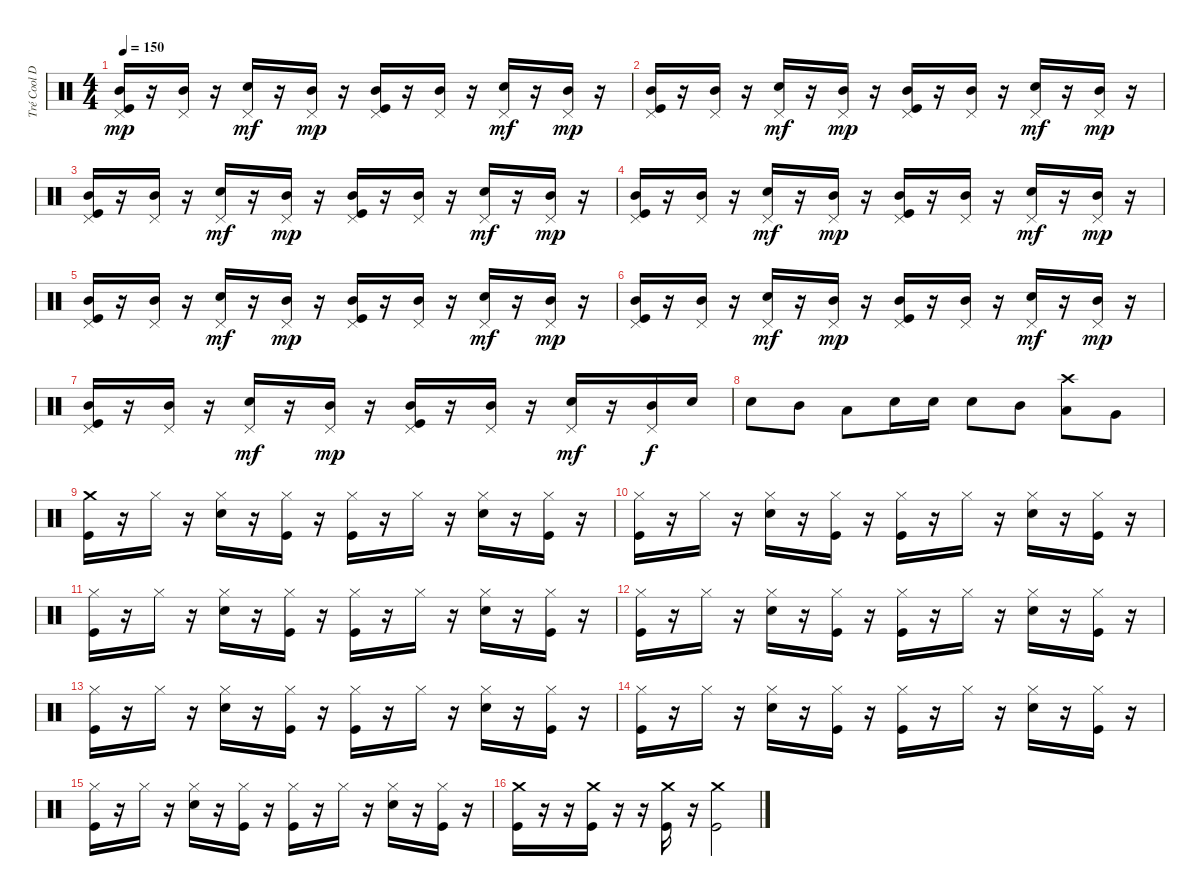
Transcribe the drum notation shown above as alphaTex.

\track ("Tré Cool Drums" "Tré Cool D") {instrument percussion}
\staff {score}
\articulation defaults
\ts (4 4)
\tempo 150
\clef neutral
\ks c
("Pedal Hi-Hat (hit)" "Mid Tom (hit)" "Kick (hit)").16{dy mp} r.16 ("Pedal Hi-Hat (hit)" "Mid Tom (hit)").16 r.16 ("Pedal Hi-Hat (hit)" "Electric Snare (hit)").16{dy mf} r.16 ("Pedal Hi-Hat (hit)" "Mid Tom (hit)").16{dy mp} r.16 ("Pedal Hi-Hat (hit)" "Mid Tom (hit)" "Kick (hit)").16 r.16 ("Pedal Hi-Hat (hit)" "Mid Tom (hit)").16 r.16 ("Pedal Hi-Hat (hit)" "Electric Snare (hit)").16{dy mf} r.16 ("Pedal Hi-Hat (hit)" "Mid Tom (hit)").16{dy mp} r.16 |
("Pedal Hi-Hat (hit)" "Mid Tom (hit)" "Kick (hit)").16 r.16 ("Pedal Hi-Hat (hit)" "Mid Tom (hit)").16 r.16 ("Pedal Hi-Hat (hit)" "Electric Snare (hit)").16{dy mf} r.16 ("Pedal Hi-Hat (hit)" "Mid Tom (hit)").16{dy mp} r.16 ("Pedal Hi-Hat (hit)" "Mid Tom (hit)" "Kick (hit)").16 r.16 ("Pedal Hi-Hat (hit)" "Mid Tom (hit)").16 r.16 ("Pedal Hi-Hat (hit)" "Electric Snare (hit)").16{dy mf} r.16 ("Pedal Hi-Hat (hit)" "Mid Tom (hit)").16{dy mp} r.16 |
("Pedal Hi-Hat (hit)" "Mid Tom (hit)" "Kick (hit)").16 r.16 ("Pedal Hi-Hat (hit)" "Mid Tom (hit)").16 r.16 ("Pedal Hi-Hat (hit)" "Electric Snare (hit)").16{dy mf} r.16 ("Pedal Hi-Hat (hit)" "Mid Tom (hit)").16{dy mp} r.16 ("Pedal Hi-Hat (hit)" "Mid Tom (hit)" "Kick (hit)").16 r.16 ("Pedal Hi-Hat (hit)" "Mid Tom (hit)").16 r.16 ("Pedal Hi-Hat (hit)" "Electric Snare (hit)").16{dy mf} r.16 ("Pedal Hi-Hat (hit)" "Mid Tom (hit)").16{dy mp} r.16 |
("Pedal Hi-Hat (hit)" "Mid Tom (hit)" "Kick (hit)").16 r.16 ("Pedal Hi-Hat (hit)" "Mid Tom (hit)").16 r.16 ("Pedal Hi-Hat (hit)" "Electric Snare (hit)").16{dy mf} r.16 ("Pedal Hi-Hat (hit)" "Mid Tom (hit)").16{dy mp} r.16 ("Pedal Hi-Hat (hit)" "Mid Tom (hit)" "Kick (hit)").16 r.16 ("Pedal Hi-Hat (hit)" "Mid Tom (hit)").16 r.16 ("Pedal Hi-Hat (hit)" "Electric Snare (hit)").16{dy mf} r.16 ("Pedal Hi-Hat (hit)" "Mid Tom (hit)").16{dy mp} r.16 |
("Pedal Hi-Hat (hit)" "Mid Tom (hit)" "Kick (hit)").16 r.16 ("Pedal Hi-Hat (hit)" "Mid Tom (hit)").16 r.16 ("Pedal Hi-Hat (hit)" "Electric Snare (hit)").16{dy mf} r.16 ("Pedal Hi-Hat (hit)" "Mid Tom (hit)").16{dy mp} r.16 ("Pedal Hi-Hat (hit)" "Mid Tom (hit)" "Kick (hit)").16 r.16 ("Pedal Hi-Hat (hit)" "Mid Tom (hit)").16 r.16 ("Pedal Hi-Hat (hit)" "Electric Snare (hit)").16{dy mf} r.16 ("Pedal Hi-Hat (hit)" "Mid Tom (hit)").16{dy mp} r.16 |
("Pedal Hi-Hat (hit)" "Mid Tom (hit)" "Kick (hit)").16 r.16 ("Pedal Hi-Hat (hit)" "Mid Tom (hit)").16 r.16 ("Pedal Hi-Hat (hit)" "Electric Snare (hit)").16{dy mf} r.16 ("Pedal Hi-Hat (hit)" "Mid Tom (hit)").16{dy mp} r.16 ("Pedal Hi-Hat (hit)" "Mid Tom (hit)" "Kick (hit)").16 r.16 ("Pedal Hi-Hat (hit)" "Mid Tom (hit)").16 r.16 ("Pedal Hi-Hat (hit)" "Electric Snare (hit)").16{dy mf} r.16 ("Pedal Hi-Hat (hit)" "Mid Tom (hit)").16{dy mp} r.16 |
("Pedal Hi-Hat (hit)" "Mid Tom (hit)" "Kick (hit)").16 r.16 ("Pedal Hi-Hat (hit)" "Mid Tom (hit)").16 r.16 ("Pedal Hi-Hat (hit)" "Electric Snare (hit)").16{dy mf} r.16 ("Pedal Hi-Hat (hit)" "Mid Tom (hit)").16{dy mp} r.16 ("Pedal Hi-Hat (hit)" "Mid Tom (hit)" "Kick (hit)").16 r.16 ("Pedal Hi-Hat (hit)" "Mid Tom (hit)").16 r.16 ("Pedal Hi-Hat (hit)" "Electric Snare (hit)").16{dy mf} r.16 ("Pedal Hi-Hat (hit)" "Mid Tom (hit)").16{dy f} "Electric Snare (hit)".16 |
"Electric Snare (hit)".8 "Mid Tom (hit)".8 "Low Tom (hit)".8 "Electric Snare (hit)".16 "Electric Snare (hit)".16 "Electric Snare (hit)".8 "Mid Tom (hit)".8 ("Crash high (hit)" "Low Tom (hit)").8 "Very Low Tom (hit)".8 |
("Crash medium (hit)" "Kick (hit)").16 r.16 "Hi-Hat (closed)".16 r.16 ("Hi-Hat (closed)" "Electric Snare (hit)").16 r.16 ("Hi-Hat (closed)" "Kick (hit)").16 r.16 ("Hi-Hat (closed)" "Kick (hit)").16 r.16 "Hi-Hat (closed)".16 r.16 ("Hi-Hat (closed)" "Electric Snare (hit)").16 r.16 ("Hi-Hat (closed)" "Kick (hit)").16 r.16 |
("Hi-Hat (closed)" "Kick (hit)").16 r.16 "Hi-Hat (closed)".16 r.16 ("Hi-Hat (closed)" "Electric Snare (hit)").16 r.16 ("Hi-Hat (closed)" "Kick (hit)").16 r.16 ("Hi-Hat (closed)" "Kick (hit)").16 r.16 "Hi-Hat (closed)".16 r.16 ("Hi-Hat (closed)" "Electric Snare (hit)").16 r.16 ("Hi-Hat (closed)" "Kick (hit)").16 r.16 |
("Hi-Hat (closed)" "Kick (hit)").16 r.16 "Hi-Hat (closed)".16 r.16 ("Hi-Hat (closed)" "Electric Snare (hit)").16 r.16 ("Hi-Hat (closed)" "Kick (hit)").16 r.16 ("Hi-Hat (closed)" "Kick (hit)").16 r.16 "Hi-Hat (closed)".16 r.16 ("Hi-Hat (closed)" "Electric Snare (hit)").16 r.16 ("Hi-Hat (closed)" "Kick (hit)").16 r.16 |
("Hi-Hat (closed)" "Kick (hit)").16 r.16 "Hi-Hat (closed)".16 r.16 ("Hi-Hat (closed)" "Electric Snare (hit)").16 r.16 ("Hi-Hat (closed)" "Kick (hit)").16 r.16 ("Hi-Hat (closed)" "Kick (hit)").16 r.16 "Hi-Hat (closed)".16 r.16 ("Hi-Hat (closed)" "Electric Snare (hit)").16 r.16 ("Hi-Hat (closed)" "Kick (hit)").16 r.16 |
("Hi-Hat (closed)" "Kick (hit)").16 r.16 "Hi-Hat (closed)".16 r.16 ("Hi-Hat (closed)" "Electric Snare (hit)").16 r.16 ("Hi-Hat (closed)" "Kick (hit)").16 r.16 ("Hi-Hat (closed)" "Kick (hit)").16 r.16 "Hi-Hat (closed)".16 r.16 ("Hi-Hat (closed)" "Electric Snare (hit)").16 r.16 ("Hi-Hat (closed)" "Kick (hit)").16 r.16 |
("Hi-Hat (closed)" "Kick (hit)").16 r.16 "Hi-Hat (closed)".16 r.16 ("Hi-Hat (closed)" "Electric Snare (hit)").16 r.16 ("Hi-Hat (closed)" "Kick (hit)").16 r.16 ("Hi-Hat (closed)" "Kick (hit)").16 r.16 "Hi-Hat (closed)".16 r.16 ("Hi-Hat (closed)" "Electric Snare (hit)").16 r.16 ("Hi-Hat (closed)" "Kick (hit)").16 r.16 |
("Hi-Hat (closed)" "Kick (hit)").16 r.16 "Hi-Hat (closed)".16 r.16 ("Hi-Hat (closed)" "Electric Snare (hit)").16 r.16 ("Hi-Hat (closed)" "Kick (hit)").16 r.16 ("Hi-Hat (closed)" "Kick (hit)").16 r.16 "Hi-Hat (closed)".16 r.16 ("Hi-Hat (closed)" "Electric Snare (hit)").16 r.16 ("Hi-Hat (closed)" "Kick (hit)").16 r.16 |
("Crash medium (hit)" "Kick (hit)").16 r.16 r.16 ("Crash medium (hit)" "Kick (hit)").16 r.16 r.16 ("Crash medium (hit)" "Kick (hit)").16 r.16 ("Crash medium (hit)" "Kick (hit)").2
